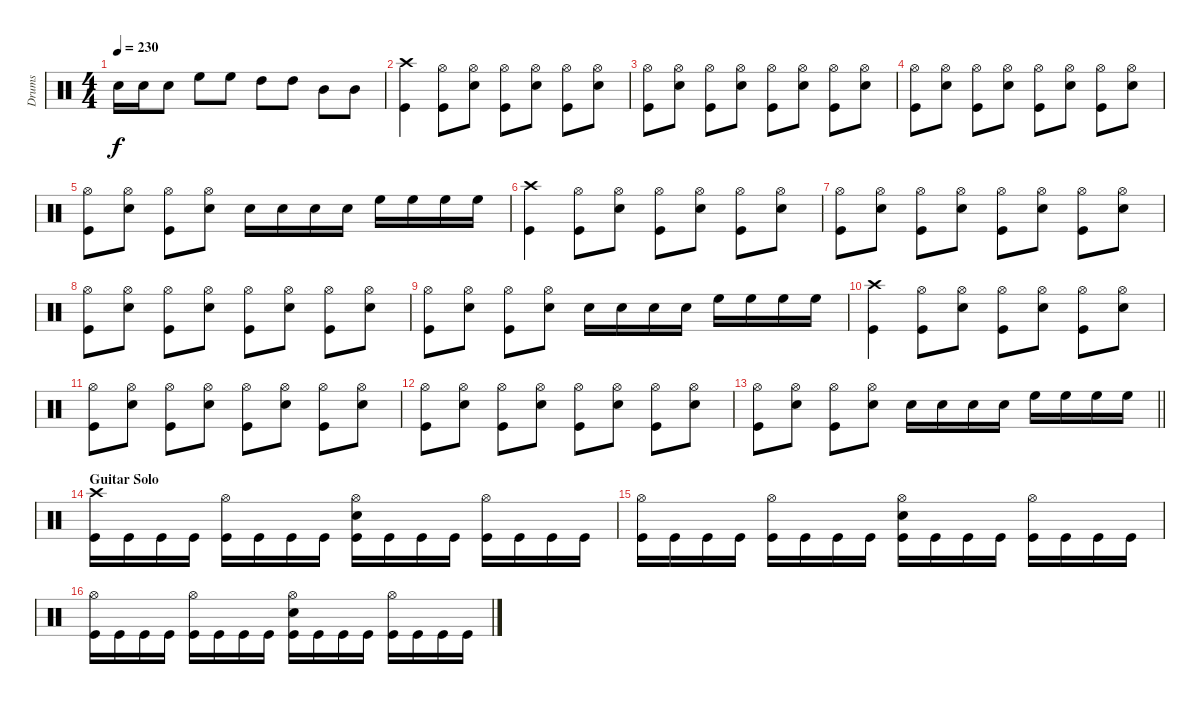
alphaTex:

\track ("Drums" "Drums") {instrument percussion}
\staff {score}
\articulation defaults
\ts (4 4)
\tempo 230
\clef neutral
\ks c "Electric Snare (hit)".16{dy f} "Electric Snare (hit)".16 "Electric Snare (hit)".8 "High Floor Tom (hit)".8 "High Floor Tom (hit)".8 "High Tom (hit)".8 "High Tom (hit)".8 "Mid Tom (hit)".8 "Mid Tom (hit)".8
|
("Crash high (hit)" "Kick (hit)").4 ("Hi-Hat (open)" "Kick (hit)").8 ("Hi-Hat (open)" "Electric Snare (hit)").8 ("Hi-Hat (open)" "Kick (hit)").8 ("Hi-Hat (open)" "Electric Snare (hit)").8 ("Hi-Hat (open)" "Kick (hit)").8 ("Hi-Hat (open)" "Electric Snare (hit)").8 |
("Hi-Hat (open)" "Kick (hit)").8 ("Hi-Hat (open)" "Electric Snare (hit)").8 ("Hi-Hat (open)" "Kick (hit)").8 ("Hi-Hat (open)" "Electric Snare (hit)").8 ("Hi-Hat (open)" "Kick (hit)").8 ("Hi-Hat (open)" "Electric Snare (hit)").8 ("Hi-Hat (open)" "Kick (hit)").8 ("Hi-Hat (open)" "Electric Snare (hit)").8 |
("Hi-Hat (open)" "Kick (hit)").8 ("Hi-Hat (open)" "Electric Snare (hit)").8 ("Hi-Hat (open)" "Kick (hit)").8 ("Hi-Hat (open)" "Electric Snare (hit)").8 ("Hi-Hat (open)" "Kick (hit)").8 ("Hi-Hat (open)" "Electric Snare (hit)").8 ("Hi-Hat (open)" "Kick (hit)").8 ("Hi-Hat (open)" "Electric Snare (hit)").8 |
("Hi-Hat (open)" "Kick (hit)").8 ("Hi-Hat (open)" "Electric Snare (hit)").8 ("Hi-Hat (open)" "Kick (hit)").8 ("Hi-Hat (open)" "Electric Snare (hit)").8 "Electric Snare (hit)".16 "Electric Snare (hit)".16 "Electric Snare (hit)".16 "Electric Snare (hit)".16 "High Floor Tom (hit)".16 "High Floor Tom (hit)".16 "High Floor Tom (hit)".16 "High Floor Tom (hit)".16 |
("Crash high (hit)" "Kick (hit)").4 ("Hi-Hat (open)" "Kick (hit)").8 ("Hi-Hat (open)" "Electric Snare (hit)").8 ("Hi-Hat (open)" "Kick (hit)").8 ("Hi-Hat (open)" "Electric Snare (hit)").8 ("Hi-Hat (open)" "Kick (hit)").8 ("Hi-Hat (open)" "Electric Snare (hit)").8 |
("Hi-Hat (open)" "Kick (hit)").8 ("Hi-Hat (open)" "Electric Snare (hit)").8 ("Hi-Hat (open)" "Kick (hit)").8 ("Hi-Hat (open)" "Electric Snare (hit)").8 ("Hi-Hat (open)" "Kick (hit)").8 ("Hi-Hat (open)" "Electric Snare (hit)").8 ("Hi-Hat (open)" "Kick (hit)").8 ("Hi-Hat (open)" "Electric Snare (hit)").8 |
("Hi-Hat (open)" "Kick (hit)").8 ("Hi-Hat (open)" "Electric Snare (hit)").8 ("Hi-Hat (open)" "Kick (hit)").8 ("Hi-Hat (open)" "Electric Snare (hit)").8 ("Hi-Hat (open)" "Kick (hit)").8 ("Hi-Hat (open)" "Electric Snare (hit)").8 ("Hi-Hat (open)" "Kick (hit)").8 ("Hi-Hat (open)" "Electric Snare (hit)").8 |
("Hi-Hat (open)" "Kick (hit)").8 ("Hi-Hat (open)" "Electric Snare (hit)").8 ("Hi-Hat (open)" "Kick (hit)").8 ("Hi-Hat (open)" "Electric Snare (hit)").8 "Electric Snare (hit)".16 "Electric Snare (hit)".16 "Electric Snare (hit)".16 "Electric Snare (hit)".16 "High Floor Tom (hit)".16 "High Floor Tom (hit)".16 "High Floor Tom (hit)".16 "High Floor Tom (hit)".16 |
("Crash high (hit)" "Kick (hit)").4 ("Hi-Hat (open)" "Kick (hit)").8 ("Hi-Hat (open)" "Electric Snare (hit)").8 ("Hi-Hat (open)" "Kick (hit)").8 ("Hi-Hat (open)" "Electric Snare (hit)").8 ("Hi-Hat (open)" "Kick (hit)").8 ("Hi-Hat (open)" "Electric Snare (hit)").8 |
("Hi-Hat (open)" "Kick (hit)").8 ("Hi-Hat (open)" "Electric Snare (hit)").8 ("Hi-Hat (open)" "Kick (hit)").8 ("Hi-Hat (open)" "Electric Snare (hit)").8 ("Hi-Hat (open)" "Kick (hit)").8 ("Hi-Hat (open)" "Electric Snare (hit)").8 ("Hi-Hat (open)" "Kick (hit)").8 ("Hi-Hat (open)" "Electric Snare (hit)").8 |
("Hi-Hat (open)" "Kick (hit)").8 ("Hi-Hat (open)" "Electric Snare (hit)").8 ("Hi-Hat (open)" "Kick (hit)").8 ("Hi-Hat (open)" "Electric Snare (hit)").8 ("Hi-Hat (open)" "Kick (hit)").8 ("Hi-Hat (open)" "Electric Snare (hit)").8 ("Hi-Hat (open)" "Kick (hit)").8 ("Hi-Hat (open)" "Electric Snare (hit)").8 |
\barLineRight lightlight
("Hi-Hat (open)" "Kick (hit)").8 ("Hi-Hat (open)" "Electric Snare (hit)").8 ("Hi-Hat (open)" "Kick (hit)").8 ("Hi-Hat (open)" "Electric Snare (hit)").8 "Electric Snare (hit)".16 "Electric Snare (hit)".16 "Electric Snare (hit)".16 "Electric Snare (hit)".16 "High Floor Tom (hit)".16 "High Floor Tom (hit)".16 "High Floor Tom (hit)".16 "High Floor Tom (hit)".16 |
\section ("" "Guitar Solo")
("Crash high (hit)" "Kick (hit)").16 "Kick (hit)".16 "Kick (hit)".16 "Kick (hit)".16 ("Hi-Hat (open)" "Kick (hit)").16 "Kick (hit)".16 "Kick (hit)".16 "Kick (hit)".16 ("Hi-Hat (open)" "Electric Snare (hit)" "Kick (hit)").16 "Kick (hit)".16 "Kick (hit)".16 "Kick (hit)".16 ("Hi-Hat (open)" "Kick (hit)").16 "Kick (hit)".16 "Kick (hit)".16 "Kick (hit)".16 |
("Hi-Hat (open)" "Kick (hit)").16 "Kick (hit)".16 "Kick (hit)".16 "Kick (hit)".16 ("Hi-Hat (open)" "Kick (hit)").16 "Kick (hit)".16 "Kick (hit)".16 "Kick (hit)".16 ("Hi-Hat (open)" "Electric Snare (hit)" "Kick (hit)").16 "Kick (hit)".16 "Kick (hit)".16 "Kick (hit)".16 ("Hi-Hat (open)" "Kick (hit)").16 "Kick (hit)".16 "Kick (hit)".16 "Kick (hit)".16 |
("Hi-Hat (open)" "Kick (hit)").16 "Kick (hit)".16 "Kick (hit)".16 "Kick (hit)".16 ("Hi-Hat (open)" "Kick (hit)").16 "Kick (hit)".16 "Kick (hit)".16 "Kick (hit)".16 ("Hi-Hat (open)" "Electric Snare (hit)" "Kick (hit)").16 "Kick (hit)".16 "Kick (hit)".16 "Kick (hit)".16 ("Hi-Hat (open)" "Kick (hit)").16 "Kick (hit)".16 "Kick (hit)".16 "Kick (hit)".16
